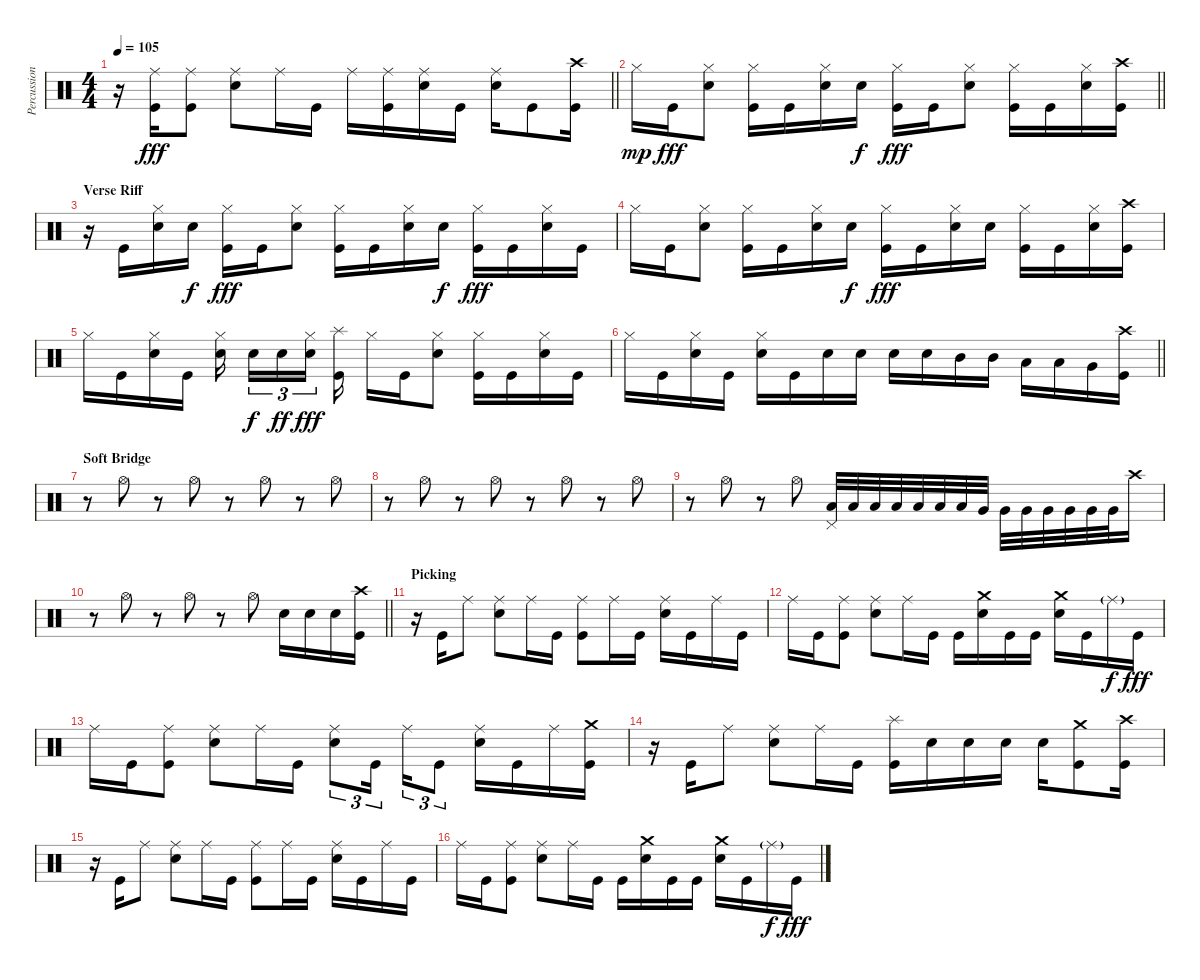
\track ("Percussion" "Percussion") {instrument percussion}
\staff {score}
\articulation defaults
\ts (4 4)
\tempo 105
\clef neutral
\barLineRight lightlight
\ks c
r.16{dy fff} ("Ride (middle)" "Kick (hit)").16 ("Ride (middle)" "Kick (hit)").8 ("Ride (middle)" "Electric Snare (hit)").8 "Ride (middle)".16 "Kick (hit)".16 "Ride (middle)".16 ("Ride (middle)" "Kick (hit)").16 ("Ride (middle)" "Electric Snare (hit)").16 "Kick (hit)".16 ("Ride (middle)" "Electric Snare (hit)").16 "Kick (hit)".8 ("Crash high (hit)" "Kick (hit)").16 |
\barLineRight lightlight "Hi-Hat (closed)".16{dy mp} "Kick (hit)".16{dy fff}
("Hi-Hat (closed)" "Electric Snare (hit)").8 ("Hi-Hat (closed)" "Kick (hit)").16 "Kick (hit)".16 ("Hi-Hat (closed)" "Electric Snare (hit)").16 "Electric Snare (hit)".16{dy f} ("Hi-Hat (closed)" "Kick (hit)").16{dy fff} "Kick (hit)".16 ("Hi-Hat (closed)" "Electric Snare (hit)").8 ("Hi-Hat (closed)" "Kick (hit)").16 "Kick (hit)".16 ("Hi-Hat (closed)" "Electric Snare (hit)").16 ("Crash high (hit)" "Kick (hit)").16 |
\section ("" "Verse Riff")
r.16 "Kick (hit)".16 ("Hi-Hat (closed)" "Electric Snare (hit)").16 "Electric Snare (hit)".16{dy f} ("Hi-Hat (closed)" "Kick (hit)").16{dy fff} "Kick (hit)".16 ("Hi-Hat (closed)" "Electric Snare (hit)").8 ("Hi-Hat (closed)" "Kick (hit)").16 "Kick (hit)".16 ("Hi-Hat (closed)" "Electric Snare (hit)").16 "Electric Snare (hit)".16{dy f} ("Hi-Hat (closed)" "Kick (hit)").16{dy fff} "Kick (hit)".16 ("Hi-Hat (closed)" "Electric Snare (hit)").16 "Kick (hit)".16 |
"Hi-Hat (closed)".16 "Kick (hit)".16 ("Hi-Hat (closed)" "Electric Snare (hit)").8 ("Hi-Hat (closed)" "Kick (hit)").16 "Kick (hit)".16 ("Hi-Hat (closed)" "Electric Snare (hit)").16 "Electric Snare (hit)".16{dy f} ("Hi-Hat (closed)" "Kick (hit)").16{dy fff} "Kick (hit)".16 ("Hi-Hat (closed)" "Electric Snare (hit)").16 "Electric Snare (hit)".16 ("Hi-Hat (closed)" "Kick (hit)").16 "Kick (hit)".16 ("Hi-Hat (closed)" "Electric Snare (hit)").16 ("Crash high (hit)" "Kick (hit)").16 |
"Hi-Hat (closed)".16 "Kick (hit)".16 ("Hi-Hat (closed)" "Electric Snare (hit)").16 "Kick (hit)".16 ("Hi-Hat (closed)" "Electric Snare (hit)").16{beam splitsecondary} "Electric Snare (hit)".16{tu (3 2) dy f} "Electric Snare (hit)".16{tu (3 2) dy ff} ("Hi-Hat (closed)" "Electric Snare (hit)").16{tu (3 2) dy fff beam splitsecondary} ("Splash (hit)" "Kick (hit)").16 "Hi-Hat (closed)".16 "Kick (hit)".16 ("Hi-Hat (closed)" "Electric Snare (hit)").8 ("Hi-Hat (closed)" "Kick (hit)").16 "Kick (hit)".16 ("Hi-Hat (closed)" "Electric Snare (hit)").16 "Kick (hit)".16 |
\barLineRight lightlight "Hi-Hat (closed)".16 "Kick (hit)".16
("Hi-Hat (closed)" "Electric Snare (hit)").16 "Kick (hit)".16 ("Hi-Hat (closed)" "Electric Snare (hit)").16 "Kick (hit)".16 "Electric Snare (hit)".16 "Electric Snare (hit)".16 "Electric Snare (hit)".16 "Electric Snare (hit)".16 "Mid Tom (hit)".16 "Mid Tom (hit)".16 "Low Tom (hit)".16 "Low Tom (hit)".16 "Very Low Tom (hit)".16 ("Crash high (hit)" "Kick (hit)").16 |
\section ("" "Soft Bridge")
r.8 "Hi-Hat (open)".8 r.8 "Hi-Hat (open)".8 r.8 "Hi-Hat (open)".8 r.8 "Hi-Hat (open)".8 |
r.8 "Hi-Hat (open)".8 r.8 "Hi-Hat (open)".8 r.8 "Hi-Hat (open)".8 r.8 "Hi-Hat (open)".8 |
r.8 "Hi-Hat (open)".8 r.8 "Hi-Hat (open)".8 ("Pedal Hi-Hat (hit)" "Low Tom (hit)").32 "Low Tom (hit)".32 "Low Tom (hit)".32 "Low Tom (hit)".32 "Low Tom (hit)".32 "Low Tom (hit)".32 "Low Tom (hit)".32 "Very Low Tom (hit)".32 "Very Low Tom (hit)".32 "Very Low Tom (hit)".32 "Very Low Tom (hit)".32 "Very Low Tom (hit)".32 "Very Low Tom (hit)".32 "Very Low Tom (hit)".32 "Crash high (hit)".16 |
\barLineRight lightlight
r.8 "Hi-Hat (open)".8 r.8 "Hi-Hat (open)".8 r.8 "Hi-Hat (open)".8 "Electric Snare (hit)".16 "Electric Snare (hit)".16 "Electric Snare (hit)".16 ("Crash high (hit)" "Kick (hit)").16 |
\section ("" "Picking")
r.16 "Kick (hit)".16 "Ride (middle)".8 ("Ride (middle)" "Electric Snare (hit)").8 "Ride (middle)".16 "Kick (hit)".16 ("Ride (middle)" "Kick (hit)").8 "Ride (middle)".16 "Kick (hit)".16 ("Ride (middle)" "Electric Snare (hit)").16 "Kick (hit)".16 "Ride (middle)".16 "Kick (hit)".16 |
"Ride (middle)".16 "Kick (hit)".16 ("Ride (middle)" "Kick (hit)").8 ("Ride (middle)" "Electric Snare (hit)").8 "Ride (middle)".16 "Kick (hit)".16 "Kick (hit)".16 ("Crash medium (hit)" "Electric Snare (hit)").16 "Kick (hit)".16 "Kick (hit)".16 ("Crash medium (hit)" "Electric Snare (hit)").16 "Kick (hit)".16 "Ride (middle)"{g}.16{dy f} "Kick (hit)".16{dy fff} |
"Ride (middle)".16 "Kick (hit)".16 ("Ride (middle)" "Kick (hit)").8 ("Ride (middle)" "Electric Snare (hit)").8 "Ride (middle)".16 "Kick (hit)".16 ("Ride (middle)" "Electric Snare (hit)").8{tu (3 2)} "Kick (hit)".16{tu (3 2) beam splitsecondary} "Ride (middle)".16{tu (3 2)} "Kick (hit)".8{tu (3 2)} ("Ride (middle)" "Electric Snare (hit)").16 "Kick (hit)".16 "Ride (middle)".16 ("Crash medium (hit)" "Kick (hit)").16 |
r.16 "Kick (hit)".16 "Ride (middle)".8 ("Ride (middle)" "Electric Snare (hit)").8 "Ride (middle)".16 "Kick (hit)".16 ("Splash (hit)" "Kick (hit)").16 "Electric Snare (hit)".16 "Electric Snare (hit)".16 "Electric Snare (hit)".16 "Electric Snare (hit)".16 ("Crash medium (hit)" "Kick (hit)").8 ("Crash high (hit)" "Kick (hit)").16 |
r.16 "Kick (hit)".16 "Ride (middle)".8 ("Ride (middle)" "Electric Snare (hit)").8 "Ride (middle)".16 "Kick (hit)".16 ("Ride (middle)" "Kick (hit)").8 "Ride (middle)".16 "Kick (hit)".16 ("Ride (middle)" "Electric Snare (hit)").16 "Kick (hit)".16 "Ride (middle)".16 "Kick (hit)".16 |
"Ride (middle)".16 "Kick (hit)".16 ("Ride (middle)" "Kick (hit)").8 ("Ride (middle)" "Electric Snare (hit)").8 "Ride (middle)".16 "Kick (hit)".16 "Kick (hit)".16 ("Crash medium (hit)" "Electric Snare (hit)").16 "Kick (hit)".16 "Kick (hit)".16 ("Crash medium (hit)" "Electric Snare (hit)").16 "Kick (hit)".16 "Ride (middle)"{g}.16{dy f} "Kick (hit)".16{dy fff}
